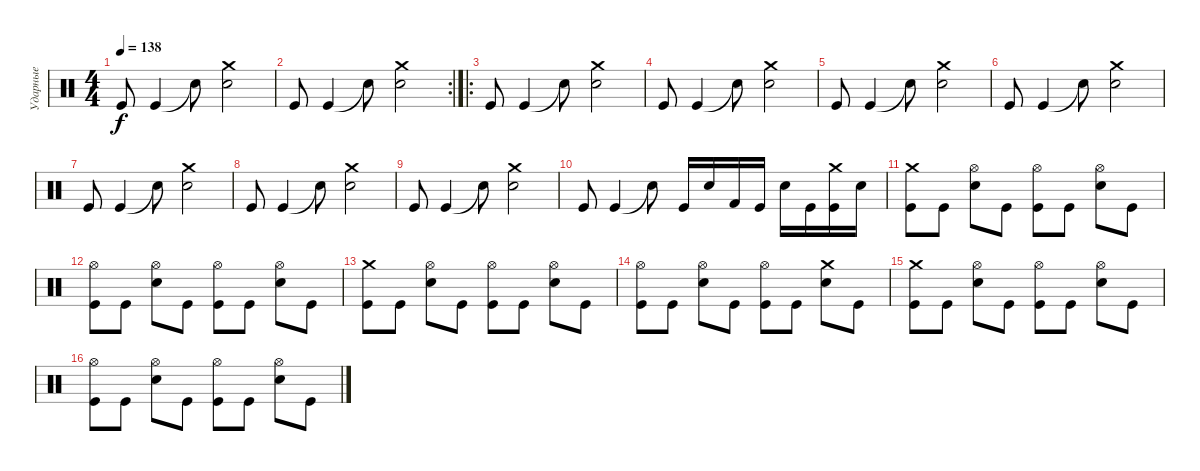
\track ("Ударные" "Ударные") {instrument percussion}
\staff {score}
\articulation defaults
\ts (4 4)
\tempo 138
\clef neutral
\ks c "Kick (hit)".8{dy f} "Kick (hit)".4 "Snare (hit) 2"{t}.8
("Snare (hit) 2" "Crash medium (hit)").2 |
\rc 2 "Kick (hit)".8 "Kick (hit)".4 "Snare (hit) 2"{t}.8
("Snare (hit) 2" "Crash medium (hit)").2 |
\ro "Kick (hit)".8 "Kick (hit)".4 "Snare (hit) 2"{t}.8
("Snare (hit) 2" "Crash medium (hit)").2 |
"Kick (hit)".8 "Kick (hit)".4 "Snare (hit) 2"{t}.8 ("Snare (hit) 2" "Crash medium (hit)").2 |
"Kick (hit)".8 "Kick (hit)".4 "Snare (hit) 2"{t}.8 ("Snare (hit) 2" "Crash medium (hit)").2 |
"Kick (hit)".8 "Kick (hit)".4 "Snare (hit) 2"{t}.8 ("Snare (hit) 2" "Crash medium (hit)").2 |
"Kick (hit)".8 "Kick (hit)".4 "Snare (hit) 2"{t}.8 ("Snare (hit) 2" "Crash medium (hit)").2 |
"Kick (hit)".8 "Kick (hit)".4 "Snare (hit) 2"{t}.8 ("Snare (hit) 2" "Crash medium (hit)").2 |
"Kick (hit)".8 "Kick (hit)".4 "Snare (hit) 2"{t}.8 ("Snare (hit) 2" "Crash medium (hit)").2 |
"Kick (hit)".8 "Kick (hit)".4 "Snare (hit) 2"{t}.8 "Kick (hit)".16 "Snare (hit) 2".16 "Kick (hit) 2".16 "Kick (hit)".16 "Snare (hit) 2".16 "Kick (hit)".16 ("Crash medium (hit)" "Kick (hit)").16 "Snare (hit) 2".16 |
("Crash medium (hit)" "Kick (hit)").8 "Kick (hit)".8 ("Hi-Hat (open)" "Snare (hit) 2").8 "Kick (hit)".8 ("Hi-Hat (open)" "Kick (hit)").8 "Kick (hit)".8 ("Hi-Hat (open)" "Snare (hit) 2").8 "Kick (hit)".8 |
("Hi-Hat (open)" "Kick (hit)").8 "Kick (hit)".8 ("Hi-Hat (open)" "Snare (hit) 2").8 "Kick (hit)".8 ("Hi-Hat (open)" "Kick (hit)").8 "Kick (hit)".8 ("Hi-Hat (open)" "Snare (hit) 2").8 "Kick (hit)".8 |
("Crash medium (hit)" "Kick (hit)").8 "Kick (hit)".8 ("Hi-Hat (open)" "Snare (hit) 2").8 "Kick (hit)".8 ("Hi-Hat (open)" "Kick (hit)").8 "Kick (hit)".8 ("Hi-Hat (open)" "Snare (hit) 2").8 "Kick (hit)".8 |
("Hi-Hat (open)" "Kick (hit)").8 "Kick (hit)".8 ("Hi-Hat (open)" "Snare (hit) 2").8 "Kick (hit)".8 ("Hi-Hat (open)" "Kick (hit)").8 "Kick (hit)".8 ("Crash medium (hit)" "Snare (hit) 2").8 "Kick (hit)".8 |
("Crash medium (hit)" "Kick (hit)").8 "Kick (hit)".8 ("Hi-Hat (open)" "Snare (hit) 2").8 "Kick (hit)".8 ("Hi-Hat (open)" "Kick (hit)").8 "Kick (hit)".8 ("Hi-Hat (open)" "Snare (hit) 2").8 "Kick (hit)".8 |
("Hi-Hat (open)" "Kick (hit)").8 "Kick (hit)".8 ("Hi-Hat (open)" "Snare (hit) 2").8 "Kick (hit)".8 ("Hi-Hat (open)" "Kick (hit)").8 "Kick (hit)".8 ("Hi-Hat (open)" "Snare (hit) 2").8 "Kick (hit)".8
